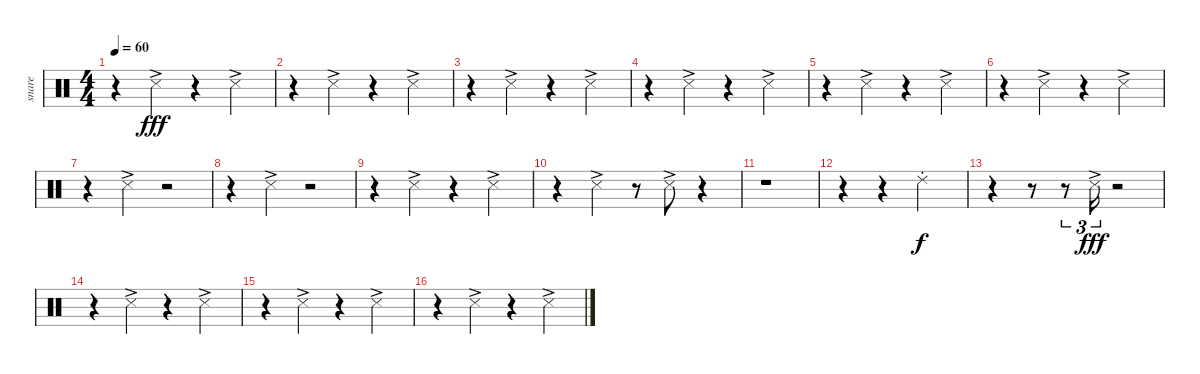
\track ("snare" "snare") {instrument percussion}
\staff {score}
\articulation defaults
\ts (4 4)
\tempo 60
\clef neutral
\ks c
r.4{dy fff} "Snare (side stick) 3"{ac}.4 r.4 "Snare (side stick) 3"{ac}.4 |
r.4 "Snare (side stick) 3"{ac}.4 r.4 "Snare (side stick) 3"{ac}.4 |
r.4 "Snare (side stick) 3"{ac}.4 r.4 "Snare (side stick) 3"{ac}.4 |
r.4 "Snare (side stick) 3"{ac}.4 r.4 "Snare (side stick) 3"{ac}.4 |
r.4 "Snare (side stick) 3"{ac}.4 r.4 "Snare (side stick) 3"{ac}.4 |
r.4 "Snare (side stick) 3"{ac}.4 r.4 "Snare (side stick) 3"{ac}.4 |
r.4 "Snare (side stick) 3"{ac}.4 r.2 |
r.4 "Snare (side stick) 3"{ac}.4 r.2 |
r.4 "Snare (side stick) 3"{ac}.4 r.4 "Snare (side stick) 3"{ac}.4 |
r.4 "Snare (side stick) 3"{ac}.4 r.8 "Snare (side stick) 3"{ac}.8 r.4 |
r.1 |
r.4 r.4 "Ride (choke) 2".2{dy f} |
r.4 r.8 r.8{tu (3 2)} "Snare (side stick) 3"{ac}.16{tu (3 2) dy fff} r.2 |
r.4 "Snare (side stick) 3"{ac}.4 r.4 "Snare (side stick) 3"{ac}.4 |
r.4 "Snare (side stick) 3"{ac}.4 r.4 "Snare (side stick) 3"{ac}.4 |
r.4 "Snare (side stick) 3"{ac}.4 r.4 "Snare (side stick) 3"{ac}.4
